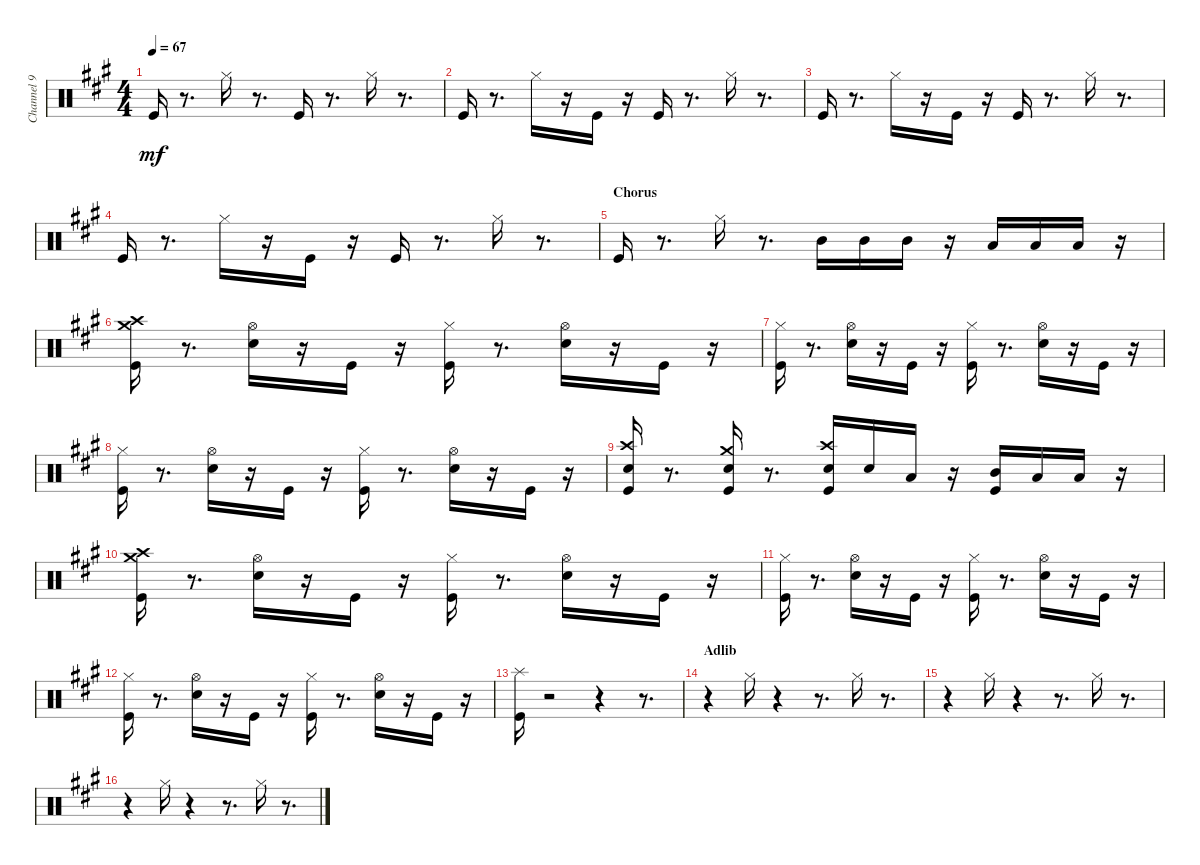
\track ("Channel 9" "Channel 9") {instrument percussion}
\staff {score}
\articulation defaults
\ts (4 4)
\tempo 67
\clef neutral
\ks f#minor "Kick (hit)".16{dy mf}
r.8{d} "Hi-Hat (closed)".16 r.8{d} "Kick (hit)".16 r.8{d} "Hi-Hat (closed)".16 r.8{d} |
"Kick (hit)".16 r.8{d} "Hi-Hat (closed)".16 r.16 "Kick (hit)".16 r.16 "Kick (hit)".16 r.8{d} "Hi-Hat (closed)".16 r.8{d} |
"Kick (hit)".16 r.8{d} "Hi-Hat (closed)".16 r.16 "Kick (hit)".16 r.16 "Kick (hit)".16 r.8{d} "Hi-Hat (closed)".16 r.8{d} |
"Kick (hit)".16 r.8{d} "Hi-Hat (closed)".16 r.16 "Kick (hit)".16 r.16 "Kick (hit)".16 r.8{d} "Hi-Hat (closed)".16 r.8{d} |
\section ("" "Chorus")
"Kick (hit)".16 r.8{d} "Hi-Hat (closed)".16 r.8{d} "Mid Tom (hit)".16 "Mid Tom (hit)".16 "Mid Tom (hit)".16 r.16 "Low Tom (hit)".16 "Low Tom (hit)".16 "Low Tom (hit)".16 r.16 |
("Kick (hit)" "Crash high (hit)" "Crash medium (hit)").16 r.8{d} ("Electric Snare (hit)" "Hi-Hat (open)").16 r.16 "Kick (hit)".16 r.16 ("Kick (hit)" "Hi-Hat (closed)").16 r.8{d} ("Electric Snare (hit)" "Hi-Hat (open)").16 r.16 "Kick (hit)".16 r.16 |
("Kick (hit)" "Hi-Hat (closed)").16 r.8{d} ("Electric Snare (hit)" "Hi-Hat (open)").16 r.16 "Kick (hit)".16 r.16 ("Kick (hit)" "Hi-Hat (closed)").16 r.8{d} ("Electric Snare (hit)" "Hi-Hat (open)").16 r.16 "Kick (hit)".16 r.16 |
("Kick (hit)" "Hi-Hat (closed)").16 r.8{d} ("Electric Snare (hit)" "Hi-Hat (open)").16 r.16 "Kick (hit)".16 r.16 ("Kick (hit)" "Hi-Hat (closed)").16 r.8{d} ("Electric Snare (hit)" "Hi-Hat (open)").16 r.16 "Kick (hit)".16 r.16 |
("Kick (hit)" "Electric Snare (hit)" "Crash high (hit)").16 r.8{d} ("Kick (hit)" "Electric Snare (hit)" "Crash medium (hit)").16 r.8{d} ("Kick (hit)" "Electric Snare (hit)" "Crash high (hit)").16 "Electric Snare (hit)".16 "Low Tom (hit)".16 r.16 ("Kick (hit)" "Mid Tom (hit)").16 "Low Tom (hit)".16 "Low Tom (hit)".16 r.16 |
("Kick (hit)" "Crash high (hit)" "Crash medium (hit)").16 r.8{d} ("Electric Snare (hit)" "Hi-Hat (open)").16 r.16 "Kick (hit)".16 r.16 ("Kick (hit)" "Hi-Hat (closed)").16 r.8{d} ("Electric Snare (hit)" "Hi-Hat (open)").16 r.16 "Kick (hit)".16 r.16 |
("Kick (hit)" "Hi-Hat (closed)").16 r.8{d} ("Electric Snare (hit)" "Hi-Hat (open)").16 r.16 "Kick (hit)".16 r.16 ("Kick (hit)" "Hi-Hat (closed)").16 r.8{d} ("Electric Snare (hit)" "Hi-Hat (open)").16 r.16 "Kick (hit)".16 r.16 |
("Kick (hit)" "Hi-Hat (closed)").16 r.8{d} ("Electric Snare (hit)" "Hi-Hat (open)").16 r.16 "Kick (hit)".16 r.16 ("Kick (hit)" "Hi-Hat (closed)").16 r.8{d} ("Electric Snare (hit)" "Hi-Hat (open)").16 r.16 "Kick (hit)".16 r.16 |
("Kick (hit)" "Splash (hit)").16 r.2 r.4 r.8{d} |
\section ("" "Adlib")
r.4 "Hi-Hat (closed)".16 r.4 r.8{d} "Hi-Hat (closed)".16 r.8{d} |
r.4 "Hi-Hat (closed)".16 r.4 r.8{d} "Hi-Hat (closed)".16 r.8{d} |
r.4 "Hi-Hat (closed)".16 r.4 r.8{d} "Hi-Hat (closed)".16 r.8{d}
